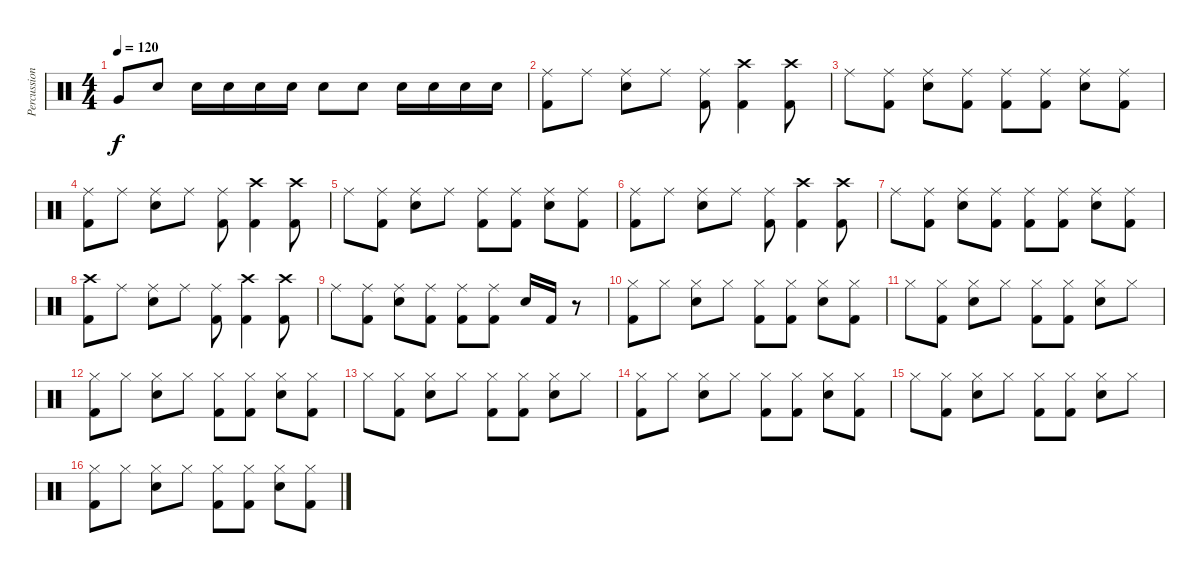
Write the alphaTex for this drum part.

\track ("Percussion" "Percussion") {instrument percussion}
\staff {score}
\articulation defaults
\ts (4 4)
\tempo 120
\clef neutral
\ks c "Very Low Tom (hit)".8{dy f} "Electric Snare (hit)".8 "Snare (hit) 2".16 "Snare (hit) 2".16 "Snare (hit) 2".16 "Snare (hit) 2".16 "Snare (hit) 2".8 "Snare (hit) 2".8 "Snare (hit) 2".16 "Snare (hit) 2".16 "Snare (hit) 2".16 "Snare (hit) 2".16
|
("Ride (middle)" "Kick (hit) 2").8 "Ride (middle)".8 ("Ride (middle)" "Snare (hit) 2").8 "Ride (middle)".8 ("Ride (middle)" "Kick (hit) 2").8 ("Crash high (hit)" "Kick (hit) 2").4 ("Crash high (hit)" "Kick (hit) 2").8 |
"Ride (middle)".8 ("Ride (middle)" "Kick (hit) 2").8 ("Ride (middle)" "Snare (hit) 2").8 ("Ride (middle)" "Kick (hit) 2").8 ("Ride (middle)" "Kick (hit) 2").8 ("Ride (middle)" "Kick (hit) 2").8 ("Ride (middle)" "Snare (hit) 2").8 ("Ride (middle)" "Kick (hit) 2").8 |
("Ride (middle)" "Kick (hit) 2").8 "Ride (middle)".8 ("Ride (middle)" "Snare (hit) 2").8 "Ride (middle)".8 ("Ride (middle)" "Kick (hit) 2").8 ("Crash high (hit)" "Kick (hit) 2").4 ("Crash high (hit)" "Kick (hit) 2").8 |
"Ride (middle)".8 ("Ride (middle)" "Kick (hit) 2").8 ("Ride (middle)" "Snare (hit) 2").8 "Ride (middle)".8 ("Ride (middle)" "Kick (hit) 2").8 ("Ride (middle)" "Kick (hit) 2").8 ("Ride (middle)" "Snare (hit) 2").8 ("Ride (middle)" "Kick (hit) 2").8 |
("Ride (middle)" "Kick (hit) 2").8 "Ride (middle)".8 ("Ride (middle)" "Snare (hit) 2").8 "Ride (middle)".8 ("Ride (middle)" "Kick (hit) 2").8 ("Crash high (hit)" "Kick (hit) 2").4 ("Crash high (hit)" "Kick (hit) 2").8 |
"Ride (middle)".8 ("Ride (middle)" "Kick (hit) 2").8 ("Ride (middle)" "Snare (hit) 2").8 ("Ride (middle)" "Kick (hit) 2").8 ("Ride (middle)" "Kick (hit) 2").8 ("Ride (middle)" "Kick (hit) 2").8 ("Ride (middle)" "Snare (hit) 2").8 ("Ride (middle)" "Kick (hit) 2").8 |
("Crash high (hit)" "Kick (hit) 2").8 "Ride (middle)".8 ("Ride (middle)" "Snare (hit) 2").8 "Ride (middle)".8 ("Ride (middle)" "Kick (hit) 2").8 ("Crash high (hit)" "Kick (hit) 2").4 ("Crash high (hit)" "Kick (hit) 2").8 |
"Ride (middle)".8 ("Ride (middle)" "Kick (hit) 2").8 ("Ride (middle)" "Snare (hit) 2").8 ("Ride (middle)" "Kick (hit) 2").8 ("Ride (middle)" "Kick (hit) 2").8 ("Ride (middle)" "Kick (hit) 2").8 "Electric Snare (hit)".16 "Kick (hit) 2".16 r.8 |
("Hi-Hat (closed)" "Kick (hit) 2").8 "Hi-Hat (closed)".8 ("Hi-Hat (closed)" "Snare (hit) 2").8 "Hi-Hat (closed)".8 ("Hi-Hat (closed)" "Kick (hit) 2").8 ("Hi-Hat (closed)" "Kick (hit) 2").8 ("Hi-Hat (closed)" "Snare (hit) 2").8 ("Hi-Hat (closed)" "Kick (hit) 2").8 |
"Hi-Hat (closed)".8 ("Hi-Hat (closed)" "Kick (hit) 2").8 ("Hi-Hat (closed)" "Snare (hit) 2").8 "Hi-Hat (closed)".8 ("Hi-Hat (closed)" "Kick (hit) 2").8 ("Hi-Hat (closed)" "Kick (hit) 2").8 ("Hi-Hat (closed)" "Snare (hit) 2").8 "Hi-Hat (closed)".8 |
("Hi-Hat (closed)" "Kick (hit) 2").8 "Hi-Hat (closed)".8 ("Hi-Hat (closed)" "Snare (hit) 2").8 "Hi-Hat (closed)".8 ("Hi-Hat (closed)" "Kick (hit) 2").8 ("Hi-Hat (closed)" "Kick (hit) 2").8 ("Hi-Hat (closed)" "Snare (hit) 2").8 ("Hi-Hat (closed)" "Kick (hit) 2").8 |
"Hi-Hat (closed)".8 ("Hi-Hat (closed)" "Kick (hit) 2").8 ("Hi-Hat (closed)" "Snare (hit) 2").8 "Hi-Hat (closed)".8 ("Hi-Hat (closed)" "Kick (hit) 2").8 ("Hi-Hat (closed)" "Kick (hit) 2").8 ("Hi-Hat (closed)" "Snare (hit) 2").8 "Hi-Hat (closed)".8 |
("Hi-Hat (closed)" "Kick (hit) 2").8 "Hi-Hat (closed)".8 ("Hi-Hat (closed)" "Snare (hit) 2").8 "Hi-Hat (closed)".8 ("Hi-Hat (closed)" "Kick (hit) 2").8 ("Hi-Hat (closed)" "Kick (hit) 2").8 ("Hi-Hat (closed)" "Snare (hit) 2").8 ("Hi-Hat (closed)" "Kick (hit) 2").8 |
"Hi-Hat (closed)".8 ("Hi-Hat (closed)" "Kick (hit) 2").8 ("Hi-Hat (closed)" "Snare (hit) 2").8 "Hi-Hat (closed)".8 ("Hi-Hat (closed)" "Kick (hit) 2").8 ("Hi-Hat (closed)" "Kick (hit) 2").8 ("Hi-Hat (closed)" "Snare (hit) 2").8 "Hi-Hat (closed)".8 |
("Hi-Hat (closed)" "Kick (hit) 2").8 "Hi-Hat (closed)".8 ("Hi-Hat (closed)" "Snare (hit) 2").8 "Hi-Hat (closed)".8 ("Hi-Hat (closed)" "Kick (hit) 2").8 ("Hi-Hat (closed)" "Kick (hit) 2").8 ("Hi-Hat (closed)" "Snare (hit) 2").8 ("Hi-Hat (closed)" "Kick (hit) 2").8
